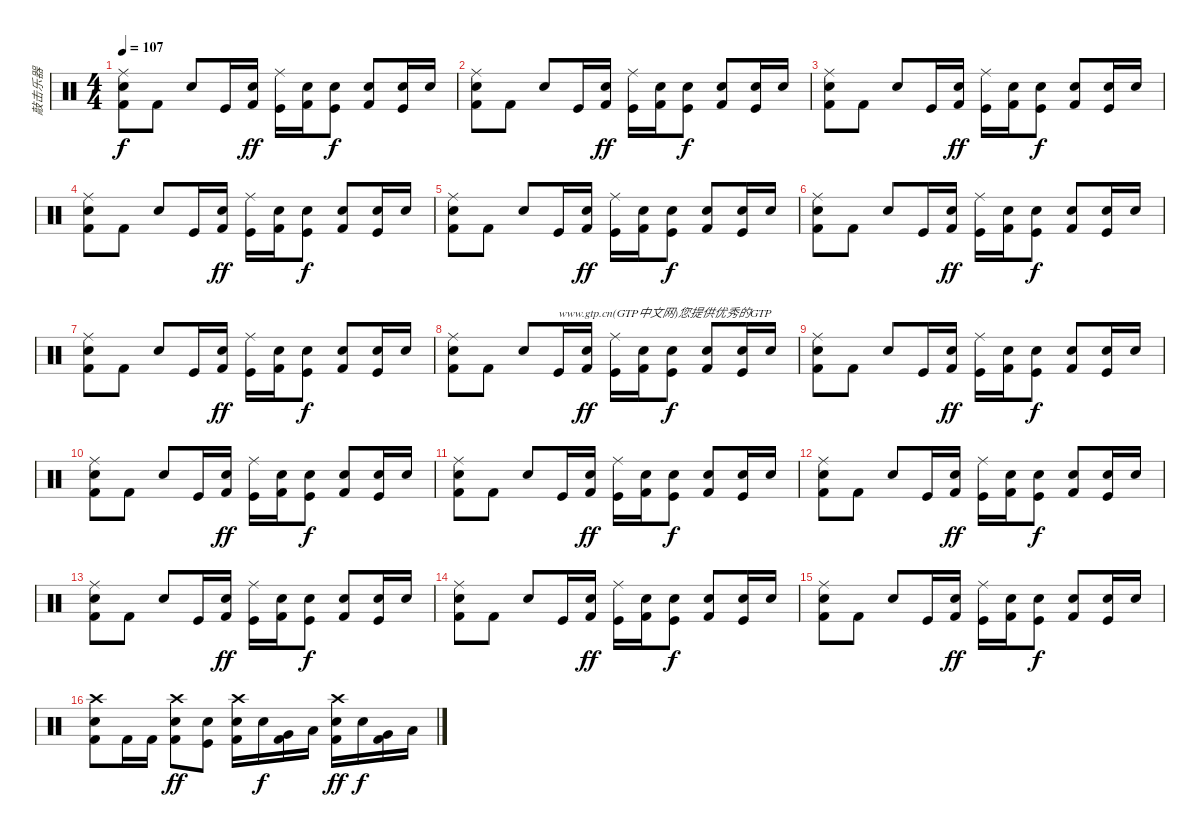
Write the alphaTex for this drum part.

\track ("敲击乐器" "敲击乐器") {instrument percussion}
\staff {score}
\articulation defaults
\ts (4 4)
\tempo 107
\clef neutral
\ks c
("Ride (middle)" "Snare (hit) 2" "Kick (hit) 2").8{dy f} "Kick (hit) 2".8 "Electric Snare (hit)".8 "Kick (hit)".16 ("Electric Snare (hit)" "Kick (hit) 2").16{dy ff} ("Ride (middle)" "Kick (hit)").16 ("Electric Snare (hit)" "Kick (hit) 2").16 ("Snare (hit) 2" "Kick (hit)").8{dy f} ("Electric Snare (hit)" "Kick (hit) 2").8 ("Snare (hit) 2" "Kick (hit)").16 "Snare (hit) 2".16 |
("Ride (middle)" "Snare (hit) 2" "Kick (hit) 2").8 "Kick (hit) 2".8 "Electric Snare (hit)".8 "Kick (hit)".16 ("Electric Snare (hit)" "Kick (hit) 2").16{dy ff} ("Ride (middle)" "Kick (hit)").16 ("Electric Snare (hit)" "Kick (hit) 2").16 ("Snare (hit) 2" "Kick (hit)").8{dy f} ("Electric Snare (hit)" "Kick (hit) 2").8 ("Snare (hit) 2" "Kick (hit)").16 "Snare (hit) 2".16 |
("Ride (middle)" "Snare (hit) 2" "Kick (hit) 2").8 "Kick (hit) 2".8 "Electric Snare (hit)".8 "Kick (hit)".16 ("Electric Snare (hit)" "Kick (hit) 2").16{dy ff} ("Ride (middle)" "Kick (hit)").16 ("Electric Snare (hit)" "Kick (hit) 2").16 ("Snare (hit) 2" "Kick (hit)").8{dy f} ("Electric Snare (hit)" "Kick (hit) 2").8 ("Snare (hit) 2" "Kick (hit)").16 "Snare (hit) 2".16 |
("Ride (middle)" "Snare (hit) 2" "Kick (hit) 2").8 "Kick (hit) 2".8 "Electric Snare (hit)".8 "Kick (hit)".16 ("Electric Snare (hit)" "Kick (hit) 2").16{dy ff} ("Ride (middle)" "Kick (hit)").16 ("Electric Snare (hit)" "Kick (hit) 2").16 ("Snare (hit) 2" "Kick (hit)").8{dy f} ("Electric Snare (hit)" "Kick (hit) 2").8 ("Snare (hit) 2" "Kick (hit)").16 "Snare (hit) 2".16 |
("Ride (middle)" "Snare (hit) 2" "Kick (hit) 2").8 "Kick (hit) 2".8 "Electric Snare (hit)".8 "Kick (hit)".16 ("Electric Snare (hit)" "Kick (hit) 2").16{dy ff} ("Ride (middle)" "Kick (hit)").16 ("Electric Snare (hit)" "Kick (hit) 2").16 ("Snare (hit) 2" "Kick (hit)").8{dy f} ("Electric Snare (hit)" "Kick (hit) 2").8 ("Snare (hit) 2" "Kick (hit)").16 "Snare (hit) 2".16 |
("Ride (middle)" "Snare (hit) 2" "Kick (hit) 2").8 "Kick (hit) 2".8 "Electric Snare (hit)".8 "Kick (hit)".16 ("Electric Snare (hit)" "Kick (hit) 2").16{dy ff} ("Ride (middle)" "Kick (hit)").16 ("Electric Snare (hit)" "Kick (hit) 2").16 ("Snare (hit) 2" "Kick (hit)").8{dy f} ("Electric Snare (hit)" "Kick (hit) 2").8 ("Snare (hit) 2" "Kick (hit)").16 "Snare (hit) 2".16 |
("Ride (middle)" "Snare (hit) 2" "Kick (hit) 2").8 "Kick (hit) 2".8 "Electric Snare (hit)".8 "Kick (hit)".16 ("Electric Snare (hit)" "Kick (hit) 2").16{dy ff} ("Ride (middle)" "Kick (hit)").16 ("Electric Snare (hit)" "Kick (hit) 2").16 ("Snare (hit) 2" "Kick (hit)").8{dy f} ("Electric Snare (hit)" "Kick (hit) 2").8 ("Snare (hit) 2" "Kick (hit)").16 "Snare (hit) 2".16 |
("Ride (middle)" "Snare (hit) 2" "Kick (hit) 2").8 "Kick (hit) 2".8 "Electric Snare (hit)".8 "Kick (hit)".16{txt "www.gtp.cn(GTP中文网)您提供优秀的GTP"} ("Electric Snare (hit)" "Kick (hit) 2").16{dy ff} ("Ride (middle)" "Kick (hit)").16 ("Electric Snare (hit)" "Kick (hit) 2").16 ("Snare (hit) 2" "Kick (hit)").8{dy f} ("Electric Snare (hit)" "Kick (hit) 2").8 ("Snare (hit) 2" "Kick (hit)").16 "Snare (hit) 2".16 |
("Ride (middle)" "Snare (hit) 2" "Kick (hit) 2").8 "Kick (hit) 2".8 "Electric Snare (hit)".8 "Kick (hit)".16 ("Electric Snare (hit)" "Kick (hit) 2").16{dy ff} ("Ride (middle)" "Kick (hit)").16 ("Electric Snare (hit)" "Kick (hit) 2").16 ("Snare (hit) 2" "Kick (hit)").8{dy f} ("Electric Snare (hit)" "Kick (hit) 2").8 ("Snare (hit) 2" "Kick (hit)").16 "Snare (hit) 2".16 |
("Ride (middle)" "Snare (hit) 2" "Kick (hit) 2").8 "Kick (hit) 2".8 "Electric Snare (hit)".8 "Kick (hit)".16 ("Electric Snare (hit)" "Kick (hit) 2").16{dy ff} ("Ride (middle)" "Kick (hit)").16 ("Electric Snare (hit)" "Kick (hit) 2").16 ("Snare (hit) 2" "Kick (hit)").8{dy f} ("Electric Snare (hit)" "Kick (hit) 2").8 ("Snare (hit) 2" "Kick (hit)").16 "Snare (hit) 2".16 |
("Ride (middle)" "Snare (hit) 2" "Kick (hit) 2").8 "Kick (hit) 2".8 "Electric Snare (hit)".8 "Kick (hit)".16 ("Electric Snare (hit)" "Kick (hit) 2").16{dy ff} ("Ride (middle)" "Kick (hit)").16 ("Electric Snare (hit)" "Kick (hit) 2").16 ("Snare (hit) 2" "Kick (hit)").8{dy f} ("Electric Snare (hit)" "Kick (hit) 2").8 ("Snare (hit) 2" "Kick (hit)").16 "Snare (hit) 2".16 |
("Ride (middle)" "Snare (hit) 2" "Kick (hit) 2").8 "Kick (hit) 2".8 "Electric Snare (hit)".8 "Kick (hit)".16 ("Electric Snare (hit)" "Kick (hit) 2").16{dy ff} ("Ride (middle)" "Kick (hit)").16 ("Electric Snare (hit)" "Kick (hit) 2").16 ("Snare (hit) 2" "Kick (hit)").8{dy f} ("Electric Snare (hit)" "Kick (hit) 2").8 ("Snare (hit) 2" "Kick (hit)").16 "Snare (hit) 2".16 |
("Ride (middle)" "Snare (hit) 2" "Kick (hit) 2").8 "Kick (hit) 2".8 "Electric Snare (hit)".8 "Kick (hit)".16 ("Electric Snare (hit)" "Kick (hit) 2").16{dy ff} ("Ride (middle)" "Kick (hit)").16 ("Electric Snare (hit)" "Kick (hit) 2").16 ("Snare (hit) 2" "Kick (hit)").8{dy f} ("Electric Snare (hit)" "Kick (hit) 2").8 ("Snare (hit) 2" "Kick (hit)").16 "Snare (hit) 2".16 |
("Ride (middle)" "Snare (hit) 2" "Kick (hit) 2").8 "Kick (hit) 2".8 "Electric Snare (hit)".8 "Kick (hit)".16 ("Electric Snare (hit)" "Kick (hit) 2").16{dy ff} ("Ride (middle)" "Kick (hit)").16 ("Electric Snare (hit)" "Kick (hit) 2").16 ("Snare (hit) 2" "Kick (hit)").8{dy f} ("Electric Snare (hit)" "Kick (hit) 2").8 ("Snare (hit) 2" "Kick (hit)").16 "Snare (hit) 2".16 |
("Ride (middle)" "Snare (hit) 2" "Kick (hit) 2").8 "Kick (hit) 2".8 "Electric Snare (hit)".8 "Kick (hit)".16 ("Electric Snare (hit)" "Kick (hit) 2").16{dy ff} ("Ride (middle)" "Kick (hit)").16 ("Electric Snare (hit)" "Kick (hit) 2").16 ("Snare (hit) 2" "Kick (hit)").8{dy f} ("Electric Snare (hit)" "Kick (hit) 2").8 ("Snare (hit) 2" "Kick (hit)").16 "Snare (hit) 2".16 |
("Crash high (hit)" "Snare (hit) 2" "Kick (hit) 2").8 "Kick (hit) 2".16 "Kick (hit) 2".16 ("Crash high (hit)" "Electric Snare (hit)" "Kick (hit) 2").8{dy ff} ("Snare (hit) 2" "Kick (hit)").8 ("Crash high (hit)" "Electric Snare (hit)" "Kick (hit) 2").16 "Snare (hit) 2".16{dy f} ("Very Low Tom (hit)" "Kick (hit) 2").16 "Low Floor Tom (hit)".16 ("Crash high (hit)" "Electric Snare (hit)" "Kick (hit) 2").16{dy ff} "Snare (hit) 2".16{dy f} ("Very Low Tom (hit)" "Kick (hit) 2").16 "Low Floor Tom (hit)".16
